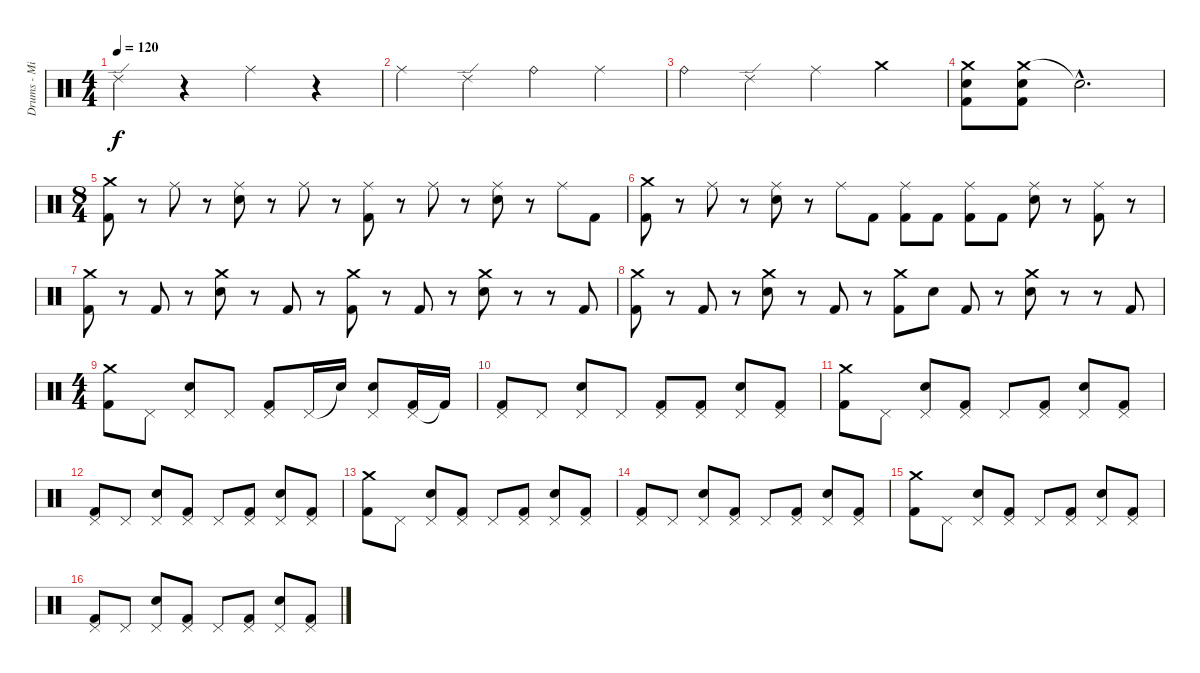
\track ("Drums - Mike Dee" "Drums - Mi") {instrument percussion}
\staff {score}
\articulation defaults
\ts (4 4)
\tempo 120
\clef neutral
\ks c "Ride (edge) 2".4{dy f}
r.4 "Ride (middle)".4 r.4 |
"Ride (middle)".4 "Ride (edge) 2".4 "Ride (bell)".4 "Ride (middle)".4 |
"Ride (bell)".4 "Ride (edge) 2".4 "Ride (middle)".4 "Crash medium (hit)".4 |
("Crash medium (hit)" "Snare (hit) 2" "Kick (hit) 2").8 ("Crash medium (hit)" "Snare (hit) 2" "Kick (hit) 2").8 "Snare (hit)"{hac t}.2{d} |
\ts (8 4)
("Crash medium (hit)" "Kick (hit) 2").8 r.8 "Ride (middle)".8 r.8 ("Ride (middle)" "Snare (hit) 2").8 r.8 "Ride (middle)".8 r.8 ("Ride (middle)" "Kick (hit) 2").8 r.8 "Ride (middle)".8 r.8 ("Ride (middle)" "Snare (hit) 2").8 r.8 "Ride (middle)".8 "Kick (hit) 2".8 |
("Crash medium (hit)" "Kick (hit) 2").8 r.8 "Ride (middle)".8 r.8 ("Ride (middle)" "Snare (hit) 2").8 r.8 "Ride (middle)".8 "Kick (hit) 2".8 ("Ride (middle)" "Kick (hit) 2").8 "Kick (hit) 2".8 ("Ride (middle)" "Kick (hit) 2").8 "Kick (hit) 2".8 ("Ride (middle)" "Snare (hit) 2").8 r.8 ("Ride (middle)" "Kick (hit) 2").8 r.8 |
("Crash medium (hit)" "Kick (hit) 2").8 r.8 "Kick (hit) 2".8 r.8 ("Crash medium (hit)" "Snare (hit) 2").8 r.8 "Kick (hit) 2".8 r.8 ("Crash medium (hit)" "Kick (hit) 2").8 r.8 "Kick (hit) 2".8 r.8 ("Crash medium (hit)" "Snare (hit) 2").8 r.8 r.8 "Kick (hit) 2".8 |
("Crash medium (hit)" "Kick (hit) 2").8 r.8 "Kick (hit) 2".8 r.8 ("Crash medium (hit)" "Snare (hit) 2").8 r.8 "Kick (hit) 2".8 r.8 ("Crash medium (hit)" "Kick (hit) 2").8 "Electric Snare (hit)".8 "Kick (hit) 2".8 r.8 ("Crash medium (hit)" "Snare (hit) 2").8 r.8 r.8 "Kick (hit) 2".8 |
\ts (4 4)
("Crash medium (hit)" "Kick (hit) 2").8 "Pedal Hi-Hat (hit)".8 ("Pedal Hi-Hat (hit)" "Snare (hit) 2").8 "Pedal Hi-Hat (hit)".8 ("Pedal Hi-Hat (hit)" "Kick (hit) 2").8 "Pedal Hi-Hat (hit)".16 "Snare (hit)"{t}.16 ("Pedal Hi-Hat (hit)" "Snare (hit) 2").8 ("Pedal Hi-Hat (hit)" "Kick (hit) 2").16 "Kick (hit) 2"{t}.16 |
("Pedal Hi-Hat (hit)" "Kick (hit) 2").8 "Pedal Hi-Hat (hit)".8 ("Pedal Hi-Hat (hit)" "Snare (hit) 2").8 "Pedal Hi-Hat (hit)".8 ("Pedal Hi-Hat (hit)" "Kick (hit) 2").8 ("Pedal Hi-Hat (hit)" "Kick (hit) 2").8 ("Pedal Hi-Hat (hit)" "Snare (hit) 2").8 ("Pedal Hi-Hat (hit)" "Kick (hit) 2").8 |
("Crash medium (hit)" "Kick (hit) 2").8 "Pedal Hi-Hat (hit)".8 ("Pedal Hi-Hat (hit)" "Snare (hit) 2").8 ("Pedal Hi-Hat (hit)" "Kick (hit) 2").8 "Pedal Hi-Hat (hit)".8 ("Pedal Hi-Hat (hit)" "Kick (hit) 2").8 ("Pedal Hi-Hat (hit)" "Snare (hit) 2").8 ("Pedal Hi-Hat (hit)" "Kick (hit) 2").8 |
("Pedal Hi-Hat (hit)" "Kick (hit) 2").8 "Pedal Hi-Hat (hit)".8 ("Pedal Hi-Hat (hit)" "Snare (hit) 2").8 ("Pedal Hi-Hat (hit)" "Kick (hit) 2").8 "Pedal Hi-Hat (hit)".8 ("Pedal Hi-Hat (hit)" "Kick (hit) 2").8 ("Pedal Hi-Hat (hit)" "Snare (hit) 2").8 ("Pedal Hi-Hat (hit)" "Kick (hit) 2").8 |
("Crash medium (hit)" "Kick (hit) 2").8 "Pedal Hi-Hat (hit)".8 ("Pedal Hi-Hat (hit)" "Snare (hit) 2").8 ("Pedal Hi-Hat (hit)" "Kick (hit) 2").8 "Pedal Hi-Hat (hit)".8 ("Pedal Hi-Hat (hit)" "Kick (hit) 2").8 ("Pedal Hi-Hat (hit)" "Snare (hit) 2").8 ("Pedal Hi-Hat (hit)" "Kick (hit) 2").8 |
("Pedal Hi-Hat (hit)" "Kick (hit) 2").8 "Pedal Hi-Hat (hit)".8 ("Pedal Hi-Hat (hit)" "Snare (hit) 2").8 ("Pedal Hi-Hat (hit)" "Kick (hit) 2").8 "Pedal Hi-Hat (hit)".8 ("Pedal Hi-Hat (hit)" "Kick (hit) 2").8 ("Pedal Hi-Hat (hit)" "Snare (hit) 2").8 ("Pedal Hi-Hat (hit)" "Kick (hit) 2").8 |
("Crash medium (hit)" "Kick (hit) 2").8 "Pedal Hi-Hat (hit)".8 ("Pedal Hi-Hat (hit)" "Snare (hit) 2").8 ("Pedal Hi-Hat (hit)" "Kick (hit) 2").8 "Pedal Hi-Hat (hit)".8 ("Pedal Hi-Hat (hit)" "Kick (hit) 2").8 ("Pedal Hi-Hat (hit)" "Snare (hit) 2").8 ("Pedal Hi-Hat (hit)" "Kick (hit) 2").8 |
("Pedal Hi-Hat (hit)" "Kick (hit) 2").8 "Pedal Hi-Hat (hit)".8 ("Pedal Hi-Hat (hit)" "Snare (hit) 2").8 ("Pedal Hi-Hat (hit)" "Kick (hit) 2").8 "Pedal Hi-Hat (hit)".8 ("Pedal Hi-Hat (hit)" "Kick (hit) 2").8 ("Pedal Hi-Hat (hit)" "Snare (hit) 2").8 ("Pedal Hi-Hat (hit)" "Kick (hit) 2").8
